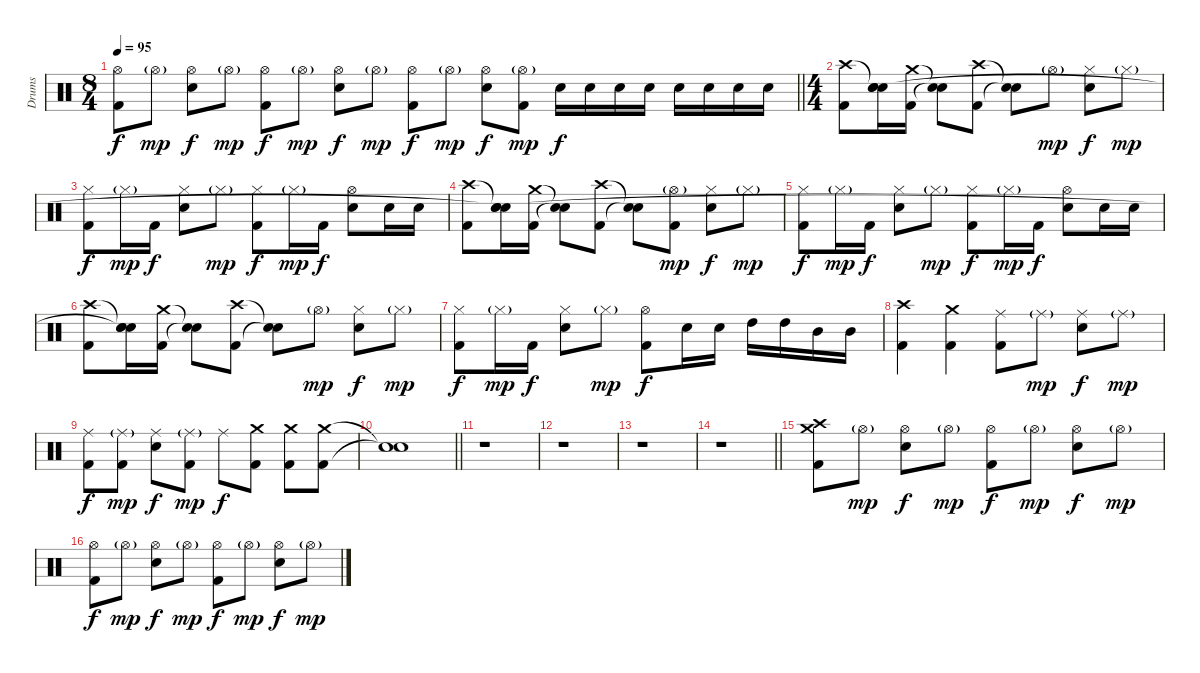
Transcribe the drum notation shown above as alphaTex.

\track ("Drums" "Drums") {instrument percussion}
\staff {score}
\articulation defaults
\ts (8 4)
\tempo 95
\clef neutral
\barLineRight lightlight
\ks c
("Hi-Hat (open)" "Kick (hit) 2").8{dy f} "Hi-Hat (open)"{g}.8{dy mp} ("Hi-Hat (open)" "Electric Snare (hit)").8{dy f} "Hi-Hat (open)"{g}.8{dy mp} ("Hi-Hat (open)" "Kick (hit) 2").8{dy f} "Hi-Hat (open)"{g}.8{dy mp} ("Hi-Hat (open)" "Electric Snare (hit)").8{dy f} "Hi-Hat (open)"{g}.8{dy mp} ("Hi-Hat (open)" "Kick (hit) 2").8{dy f} "Hi-Hat (open)"{g}.8{dy mp} ("Hi-Hat (open)" "Electric Snare (hit)").8{dy f} ("Hi-Hat (open)"{g} "Kick (hit) 2").8{dy mp} "Electric Snare (hit)".16{dy f} "Electric Snare (hit)".16 "Electric Snare (hit)".16 "Electric Snare (hit)".16 "Electric Snare (hit)".16 "Electric Snare (hit)".16 "Electric Snare (hit)".16 "Electric Snare (hit)".16 |
\ts (4 4)
("Crash high (hit)" "Kick (hit) 2").8 ("Snare (hit)"{t} "Electric Snare (hit)" "Snare (hit)"{t}).16 ("Crash medium (hit)" "Kick (hit) 2").16 ("Snare (hit)"{t} "Snare (hit)"{t}).8 ("Crash high (hit)" "Kick (hit) 2").8 ("Snare (hit)"{t} "Snare (hit)"{t}).8 "Hi-Hat (open)"{g}.8{dy mp} ("Hi-Hat (closed)" "Electric Snare (hit)").8{dy f} "Hi-Hat (closed)"{g}.8{dy mp} |
("Hi-Hat (closed)" "Kick (hit) 2").8{dy f} "Hi-Hat (closed)"{g}.16{dy mp} "Kick (hit) 2".16{dy f} ("Hi-Hat (closed)" "Electric Snare (hit)").8 "Hi-Hat (closed)"{g}.8{dy mp} ("Hi-Hat (closed)" "Kick (hit) 2").8{dy f} "Hi-Hat (closed)"{g}.16{dy mp} "Kick (hit) 2".16{dy f} ("Hi-Hat (open)" "Electric Snare (hit)").8 "Electric Snare (hit)".16 "Electric Snare (hit)".16 |
("Crash high (hit)" "Kick (hit) 2").8 ("Snare (hit)"{t} "Electric Snare (hit)" "Snare (hit)"{t}).16 ("Crash medium (hit)" "Kick (hit) 2").16 ("Snare (hit)"{t} "Snare (hit)"{t}).8 ("Crash high (hit)" "Kick (hit) 2").8 ("Snare (hit)"{t} "Snare (hit)"{t}).8 ("Hi-Hat (open)"{g} "Kick (hit) 2").8{dy mp} ("Hi-Hat (closed)" "Electric Snare (hit)").8{dy f} "Hi-Hat (closed)"{g}.8{dy mp} |
("Hi-Hat (closed)" "Kick (hit) 2").8{dy f} "Hi-Hat (closed)"{g}.16{dy mp} "Kick (hit) 2".16{dy f} ("Hi-Hat (closed)" "Electric Snare (hit)").8 "Hi-Hat (closed)"{g}.8{dy mp} ("Hi-Hat (closed)" "Kick (hit) 2").8{dy f} "Hi-Hat (closed)"{g}.16{dy mp} "Kick (hit) 2".16{dy f} ("Hi-Hat (open)" "Electric Snare (hit)").8 "Electric Snare (hit)".16 "Electric Snare (hit)".16 |
("Crash high (hit)" "Kick (hit) 2").8 ("Snare (hit)"{t} "Electric Snare (hit)" "Snare (hit)"{t}).16 ("Crash medium (hit)" "Kick (hit) 2").16 ("Snare (hit)"{t} "Snare (hit)"{t}).8 ("Crash high (hit)" "Kick (hit) 2").8 ("Snare (hit)"{t} "Snare (hit)"{t}).8 "Hi-Hat (open)"{g}.8{dy mp} ("Hi-Hat (closed)" "Electric Snare (hit)").8{dy f} "Hi-Hat (closed)"{g}.8{dy mp} |
("Hi-Hat (closed)" "Kick (hit) 2").8{dy f} "Hi-Hat (closed)"{g}.16{dy mp} "Kick (hit) 2".16{dy f} ("Hi-Hat (closed)" "Electric Snare (hit)").8 "Hi-Hat (closed)"{g}.8{dy mp} ("Hi-Hat (open)" "Kick (hit) 2").8{dy f} "Electric Snare (hit)".16 "Electric Snare (hit)".16 "High Tom (hit)".16 "High Tom (hit)".16 "Mid Tom (hit)".16 "Mid Tom (hit)".16 |
("Crash high (hit)" "Kick (hit) 2").4 ("Crash medium (hit)" "Kick (hit) 2").4 ("Ride (middle)" "Kick (hit) 2").8 "Ride (middle)"{g}.8{dy mp} ("Ride (middle)" "Electric Snare (hit)").8{dy f} "Ride (middle)"{g}.8{dy mp} |
("Ride (middle)" "Kick (hit) 2").8{dy f} ("Ride (middle)"{g} "Kick (hit) 2").8{dy mp} ("Ride (middle)" "Electric Snare (hit)").8{dy f} ("Ride (middle)"{g} "Kick (hit) 2").8{dy mp} "Ride (middle)".8{dy f} ("Crash medium (hit)" "Kick (hit) 2").8 ("Crash medium (hit)" "Kick (hit) 2").8 ("Crash medium (hit)" "Kick (hit) 2").8 |
\barLineRight lightlight
("Snare (hit)"{t} "Snare (hit)"{t}).1 |
r.1 |
r.1 |
r.1 |
\barLineRight lightlight
r.1 |
("Crash high (hit)" "Crash medium (hit)" "Kick (hit) 2").8 "Hi-Hat (open)"{g}.8{dy mp} ("Hi-Hat (open)" "Electric Snare (hit)").8{dy f} "Hi-Hat (open)"{g}.8{dy mp} ("Hi-Hat (open)" "Kick (hit) 2").8{dy f} "Hi-Hat (open)"{g}.8{dy mp} ("Hi-Hat (open)" "Electric Snare (hit)").8{dy f} "Hi-Hat (open)"{g}.8{dy mp} |
("Hi-Hat (open)" "Kick (hit) 2").8{dy f} "Hi-Hat (open)"{g}.8{dy mp} ("Hi-Hat (open)" "Electric Snare (hit)").8{dy f} "Hi-Hat (open)"{g}.8{dy mp} ("Hi-Hat (open)" "Kick (hit) 2").8{dy f} "Hi-Hat (open)"{g}.8{dy mp} ("Hi-Hat (open)" "Electric Snare (hit)").8{dy f} "Hi-Hat (open)"{g}.8{dy mp}
